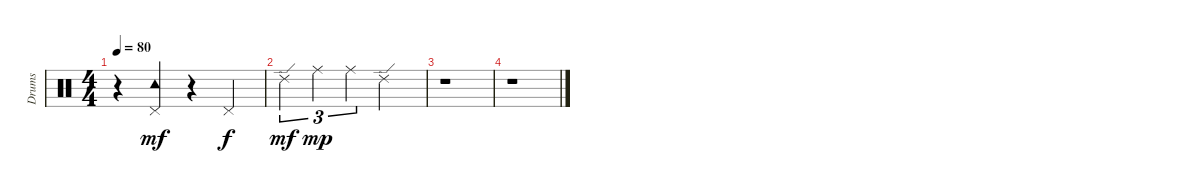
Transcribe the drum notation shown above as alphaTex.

\track ("Drums" "Drums") {instrument percussion}
\staff {score}
\articulation defaults
\ts (4 4)
\tempo 80
\clef neutral
\ks c
r.4{dy f} ("Tambourine (hit)" "Pedal Hi-Hat (hit)").4{dy mf} r.4 "Pedal Hi-Hat (hit)".4{dy f} |
"Ride (edge) 2".4{tu (3 2) dy mf} "Ride (middle)".4{tu (3 2) dy mp} "Ride (middle)".4{tu (3 2)} "Ride (edge) 2".2 |
r.1 |
r.1
